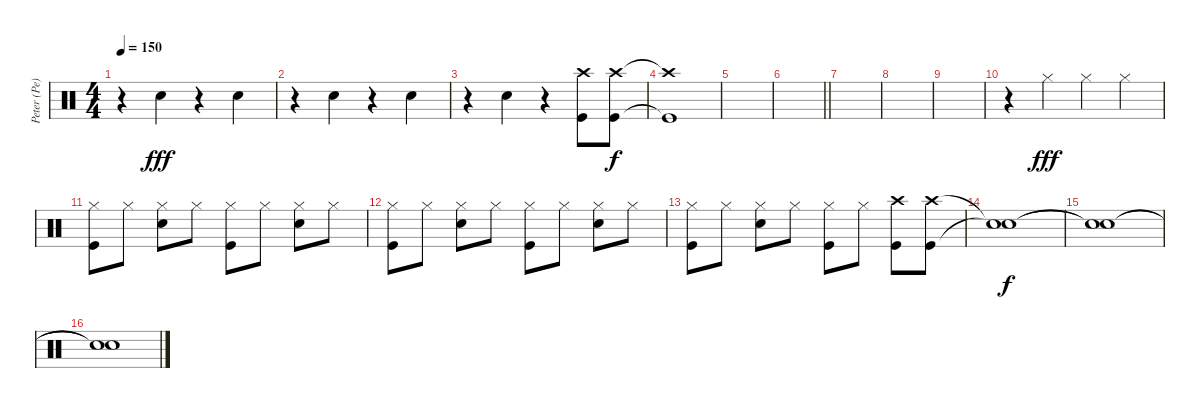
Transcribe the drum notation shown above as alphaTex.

\track ("Peter (Pe) Schorowsky" "Peter (Pe)") {instrument percussion}
\staff {score}
\articulation defaults
\ts (4 4)
\tempo 150
\clef neutral
\ks c
r.4{dy fff} "Electric Snare (hit)".4 r.4 "Electric Snare (hit)".4 |
r.4 "Electric Snare (hit)".4 r.4 "Electric Snare (hit)".4 |
r.4 "Electric Snare (hit)".4 r.4 ("Crash high (hit)" "Kick (hit)").8 ("Crash high (hit)" "Kick (hit)").8{dy f} |
("Crash high (hit)"{t} "Kick (hit)"{t}).1 |
|
\barLineRight lightlight
|
|
|
|
r.4 "Hi-Hat (closed)".4{dy fff} "Hi-Hat (closed)".4 "Hi-Hat (closed)".4 |
("Kick (hit)" "Hi-Hat (closed)").8 "Hi-Hat (closed)".8 ("Electric Snare (hit)" "Hi-Hat (closed)").8 "Hi-Hat (closed)".8 ("Kick (hit)" "Hi-Hat (closed)").8 "Hi-Hat (closed)".8 ("Electric Snare (hit)" "Hi-Hat (closed)").8 "Hi-Hat (closed)".8 |
("Kick (hit)" "Hi-Hat (closed)").8 "Hi-Hat (closed)".8 ("Electric Snare (hit)" "Hi-Hat (closed)").8 "Hi-Hat (closed)".8 ("Kick (hit)" "Hi-Hat (closed)").8 "Hi-Hat (closed)".8 ("Electric Snare (hit)" "Hi-Hat (closed)").8 "Hi-Hat (closed)".8 |
("Kick (hit)" "Hi-Hat (closed)").8 "Hi-Hat (closed)".8 ("Electric Snare (hit)" "Hi-Hat (closed)").8 "Hi-Hat (closed)".8 ("Kick (hit)" "Hi-Hat (closed)").8 "Hi-Hat (closed)".8 ("Crash high (hit)" "Kick (hit)").8 ("Crash high (hit)" "Kick (hit)").8 |
("Snare (hit)"{t} "Snare (hit)"{t}).1{dy f} |
("Snare (hit)"{t} "Snare (hit)"{t}).1 |
("Snare (hit)"{t} "Snare (hit)"{t}).1
